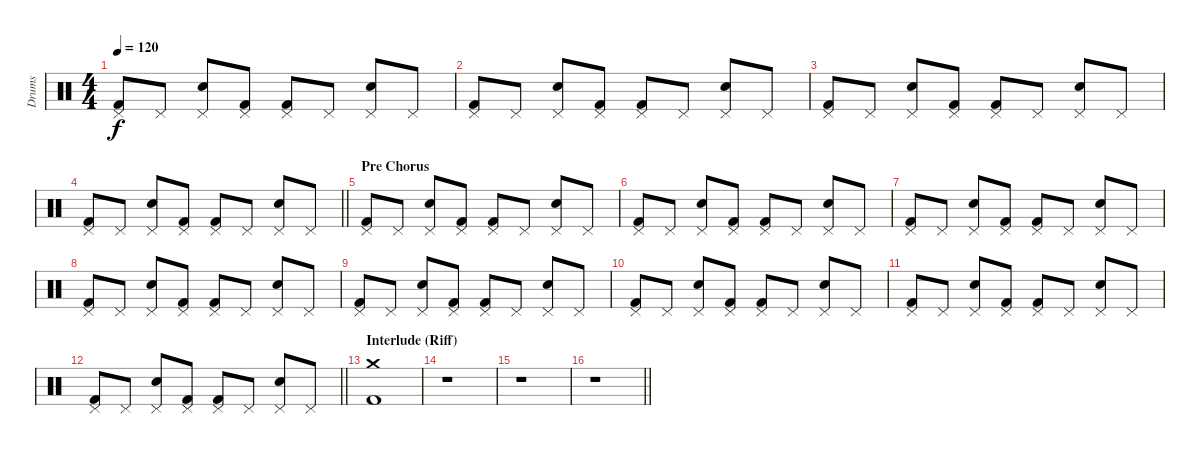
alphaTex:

\track ("Drums" "Drums") {instrument percussion}
\staff {score}
\articulation defaults
\ts (4 4)
\tempo 120
\clef neutral
\ks c
("Pedal Hi-Hat (hit)" "Kick (hit) 2").8{dy f} "Pedal Hi-Hat (hit)".8 ("Pedal Hi-Hat (hit)" "Electric Snare (hit)").8 ("Pedal Hi-Hat (hit)" "Kick (hit) 2").8 ("Pedal Hi-Hat (hit)" "Kick (hit) 2").8 "Pedal Hi-Hat (hit)".8 ("Pedal Hi-Hat (hit)" "Electric Snare (hit)").8 "Pedal Hi-Hat (hit)".8 |
("Pedal Hi-Hat (hit)" "Kick (hit) 2").8 "Pedal Hi-Hat (hit)".8 ("Pedal Hi-Hat (hit)" "Electric Snare (hit)").8 ("Pedal Hi-Hat (hit)" "Kick (hit) 2").8 ("Pedal Hi-Hat (hit)" "Kick (hit) 2").8 "Pedal Hi-Hat (hit)".8 ("Pedal Hi-Hat (hit)" "Electric Snare (hit)").8 "Pedal Hi-Hat (hit)".8 |
("Pedal Hi-Hat (hit)" "Kick (hit) 2").8 "Pedal Hi-Hat (hit)".8 ("Pedal Hi-Hat (hit)" "Electric Snare (hit)").8 ("Pedal Hi-Hat (hit)" "Kick (hit) 2").8 ("Pedal Hi-Hat (hit)" "Kick (hit) 2").8 "Pedal Hi-Hat (hit)".8 ("Pedal Hi-Hat (hit)" "Electric Snare (hit)").8 "Pedal Hi-Hat (hit)".8 |
\barLineRight lightlight
("Pedal Hi-Hat (hit)" "Kick (hit) 2").8 "Pedal Hi-Hat (hit)".8 ("Pedal Hi-Hat (hit)" "Electric Snare (hit)").8 ("Pedal Hi-Hat (hit)" "Kick (hit) 2").8 ("Pedal Hi-Hat (hit)" "Kick (hit) 2").8 "Pedal Hi-Hat (hit)".8 ("Pedal Hi-Hat (hit)" "Electric Snare (hit)").8 "Pedal Hi-Hat (hit)".8 |
\section ("" "Pre Chorus")
("Pedal Hi-Hat (hit)" "Kick (hit) 2").8 "Pedal Hi-Hat (hit)".8 ("Pedal Hi-Hat (hit)" "Electric Snare (hit)").8 ("Pedal Hi-Hat (hit)" "Kick (hit) 2").8 ("Pedal Hi-Hat (hit)" "Kick (hit) 2").8 "Pedal Hi-Hat (hit)".8 ("Pedal Hi-Hat (hit)" "Electric Snare (hit)").8 "Pedal Hi-Hat (hit)".8 |
("Pedal Hi-Hat (hit)" "Kick (hit) 2").8 "Pedal Hi-Hat (hit)".8 ("Pedal Hi-Hat (hit)" "Electric Snare (hit)").8 ("Pedal Hi-Hat (hit)" "Kick (hit) 2").8 ("Pedal Hi-Hat (hit)" "Kick (hit) 2").8 "Pedal Hi-Hat (hit)".8 ("Pedal Hi-Hat (hit)" "Electric Snare (hit)").8 "Pedal Hi-Hat (hit)".8 |
("Pedal Hi-Hat (hit)" "Kick (hit) 2").8 "Pedal Hi-Hat (hit)".8 ("Pedal Hi-Hat (hit)" "Electric Snare (hit)").8 ("Pedal Hi-Hat (hit)" "Kick (hit) 2").8 ("Pedal Hi-Hat (hit)" "Kick (hit) 2").8 "Pedal Hi-Hat (hit)".8 ("Pedal Hi-Hat (hit)" "Electric Snare (hit)").8 "Pedal Hi-Hat (hit)".8 |
("Pedal Hi-Hat (hit)" "Kick (hit) 2").8 "Pedal Hi-Hat (hit)".8 ("Pedal Hi-Hat (hit)" "Electric Snare (hit)").8 ("Pedal Hi-Hat (hit)" "Kick (hit) 2").8 ("Pedal Hi-Hat (hit)" "Kick (hit) 2").8 "Pedal Hi-Hat (hit)".8 ("Pedal Hi-Hat (hit)" "Electric Snare (hit)").8 "Pedal Hi-Hat (hit)".8 |
("Pedal Hi-Hat (hit)" "Kick (hit) 2").8 "Pedal Hi-Hat (hit)".8 ("Pedal Hi-Hat (hit)" "Electric Snare (hit)").8 ("Pedal Hi-Hat (hit)" "Kick (hit) 2").8 ("Pedal Hi-Hat (hit)" "Kick (hit) 2").8 "Pedal Hi-Hat (hit)".8 ("Pedal Hi-Hat (hit)" "Electric Snare (hit)").8 "Pedal Hi-Hat (hit)".8 |
("Pedal Hi-Hat (hit)" "Kick (hit) 2").8 "Pedal Hi-Hat (hit)".8 ("Pedal Hi-Hat (hit)" "Electric Snare (hit)").8 ("Pedal Hi-Hat (hit)" "Kick (hit) 2").8 ("Pedal Hi-Hat (hit)" "Kick (hit) 2").8 "Pedal Hi-Hat (hit)".8 ("Pedal Hi-Hat (hit)" "Electric Snare (hit)").8 "Pedal Hi-Hat (hit)".8 |
("Pedal Hi-Hat (hit)" "Kick (hit) 2").8 "Pedal Hi-Hat (hit)".8 ("Pedal Hi-Hat (hit)" "Electric Snare (hit)").8 ("Pedal Hi-Hat (hit)" "Kick (hit) 2").8 ("Pedal Hi-Hat (hit)" "Kick (hit) 2").8 "Pedal Hi-Hat (hit)".8 ("Pedal Hi-Hat (hit)" "Electric Snare (hit)").8 "Pedal Hi-Hat (hit)".8 |
\barLineRight lightlight
("Pedal Hi-Hat (hit)" "Kick (hit) 2").8 "Pedal Hi-Hat (hit)".8 ("Pedal Hi-Hat (hit)" "Electric Snare (hit)").8 ("Pedal Hi-Hat (hit)" "Kick (hit) 2").8 ("Pedal Hi-Hat (hit)" "Kick (hit) 2").8 "Pedal Hi-Hat (hit)".8 ("Pedal Hi-Hat (hit)" "Electric Snare (hit)").8 "Pedal Hi-Hat (hit)".8 |
\section ("" "Interlude (Riff)")
("Crash medium (hit)" "Kick (hit) 2").1 |
r.1 |
r.1 |
\barLineRight lightlight
r.1
